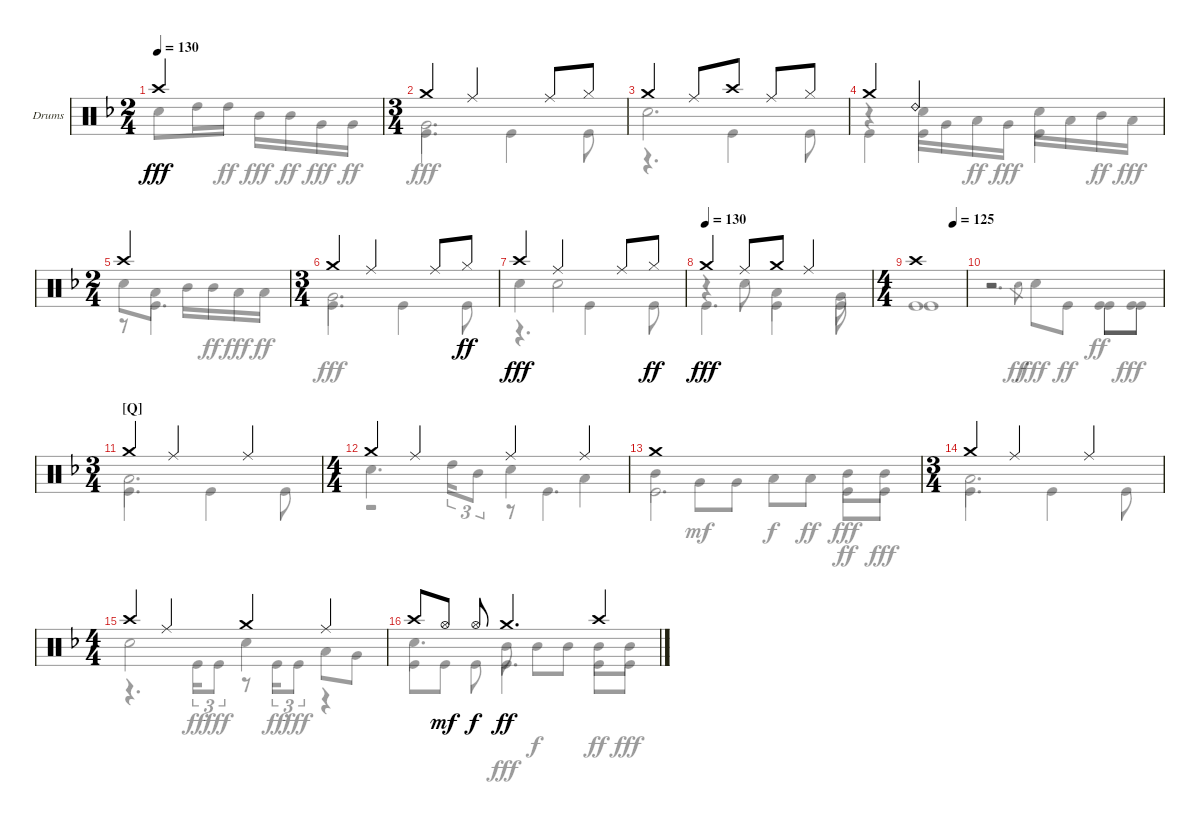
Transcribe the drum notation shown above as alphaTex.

\defaultSystemsLayout 4
\bracketExtendMode groupsimilarinstruments
\firstSystemTrackNameOrientation horizontal
\otherSystemsTrackNameOrientation horizontal
\track ("Drumkit" "Drums") {instrument percussion}
\staff {score}
\articulation defaults
\voice
\ts (2 4)
\tempo 130
\clef neutral
\ks f "Crash high (hit)".2{dy fff}
|
\ts (3 4)
"Crash medium (hit)".4 "Ride (middle)".4 "Ride (middle)".8 "Hi-Hat (closed)".8 |
"Crash medium (hit)".4 "Ride (middle)".8 "Crash high (hit)".8 "Ride (middle)".8 "Hi-Hat (closed)".8 |
"Crash medium (hit)".4 "Ride (bell) 2".2 |
\ts (2 4)
"Crash high (hit)".2 |
\ts (3 4)
"Crash medium (hit)".4 "Ride (middle)".4 "Ride (middle)".8 "Hi-Hat (closed)".8{dy ff} |
"Crash high (hit)".4{dy fff} "Ride (middle)".4 "Ride (middle)".8 "Hi-Hat (closed)".8{dy ff} |
\tempo (130)
"Crash medium (hit)".4{dy fff} "Ride (middle)".8 "Crash medium (hit)".8 "Ride (middle)".4 |
\ts (4 4)
\tempo (125 0.75625)
"Crash high (hit)".1 |
|
\ts (3 4)
\section ("Q" "")
"Crash medium (hit)".4 "Ride (middle)".4 "Ride (middle)".4 |
\ts (4 4)
"Crash medium (hit)".4 "Ride (middle)".4 "Ride (middle)".4 "Ride (middle)".4 |
"Crash medium (hit)".1 |
\ts (3 4)
"Crash medium (hit)".4 "Ride (middle)".4 "Ride (middle)".4 |
\ts (4 4)
"Crash high (hit)".4 "Ride (middle)".4 "Crash medium (hit)".4 "Ride (middle)".4 |
"Crash high (hit)".8 "Hi-Hat (open)".8{dy mf} "Hi-Hat (open)".8{dy f} "Crash medium (hit)".4{d dy ff} "Crash high (hit)".4
\voice
\clef neutral
\ottava regular
\simile none
\ks f "Snare (hit) 2".8{dy fff} "High Tom (hit)".16 "High Tom (hit)".16{dy ff} "Mid Tom (hit)".16{dy fff} "Mid Tom (hit)".16{dy ff} "Very Low Tom (hit)".16{dy fff} "Very Low Tom (hit)".16{dy ff}
|
"Very Low Tom (hit)".2{d dy fff} |
"Snare (hit) 2".2{d} |
r.4 "Snare (hit) 2".16 "Very Low Tom (hit)".16 "Low Tom (hit)".16{dy ff} "Very Low Tom (hit)".16{dy fff} "Snare (hit) 2".16 "Low Tom (hit)".16 "Mid Tom (hit)".16{dy ff} "Low Tom (hit)".16{dy fff} |
"Snare (hit) 2".8 "Low Tom (hit)".8 "Mid Tom (hit)".16 "Mid Tom (hit)".16{dy ff} "Low Tom (hit)".16{dy fff} "Low Tom (hit)".16{dy ff} |
"Very Low Tom (hit)".2{d dy fff} |
"Snare (hit) 2".4 "Snare (hit) 2".2 |
r.4 "Snare (hit) 2".8 "Low Tom (hit)".4 "Very Low Tom (hit)".8 |
"Kick (hit)".1 |
r.2 "Snare (hit) 2".8{gr dy ff} "Snare (hit) 2".8{dy fff} "Kick (hit)".8{dy ff} "Kick (hit)".8 "Kick (hit)".8{dy fff} |
"Low Tom (hit)".2{d} |
"Snare (hit) 2".4{d} "High Tom (hit)".16{tu (3 2)} "Mid Tom (hit)".8{tu (3 2)} "Snare (hit) 2".4 "Low Tom (hit)".4 |
"Mid Tom (hit)".4 "Very Low Tom (hit)".8{dy mf} "Very Low Tom (hit)".8 "Low Tom (hit)".8{dy f} "Low Tom (hit)".8{dy ff} "Mid Tom (hit)".8{dy fff} "Mid Tom (hit)".8 |
"Low Tom (hit)".2{d} |
"Snare (hit) 2".2 "Snare (hit) 2".4 "Low Tom (hit)".8 "Very Low Tom (hit)".8 |
"Snare (hit) 2".4{d} "Mid Tom (hit)".8{dy ff} "Mid Tom (hit)".8{dy f} "Mid Tom (hit)".8 "Mid Tom (hit)".8{dy ff} "Mid Tom (hit)".8{dy fff}
\voice
\clef neutral
\ottava regular
\simile none
\ks f
|
"Kick (hit)".4{d} "Kick (hit)".4 "Kick (hit)".8 |
r.4{d} "Kick (hit)".4 "Kick (hit)".8 |
"Kick (hit)".4 "Kick (hit)".4 "Kick (hit)".4 |
r.8 "Kick (hit)".4{d} |
"Kick (hit)".4{d} "Kick (hit)".4 "Kick (hit)".8 |
r.4{d} "Kick (hit)".4 "Kick (hit)".8 |
"Kick (hit)".4{d} "Kick (hit)".4 "Kick (hit)".8 |
"Kick (hit)".1 |
r.2{d} "Kick (hit)".8{dy ff} "Kick (hit)".8{dy fff} |
"Kick (hit)".4{d} "Kick (hit)".4 "Kick (hit)".8 |
r.2 r.8 "Kick (hit)".4{d} |
"Kick (hit)".2{d} "Kick (hit)".8{dy ff} "Kick (hit)".8{dy fff} |
"Kick (hit)".4{d} "Kick (hit)".4 "Kick (hit)".8 |
r.4{d} "Kick (hit)".16{tu (3 2) dy ff} "Kick (hit)".8{tu (3 2) dy fff} r.8 "Kick (hit)".16{tu (3 2) dy ff} "Kick (hit)".8{tu (3 2) dy fff} r.4 |
"Kick (hit)".8 "Kick (hit)".8{dy mf} "Kick (hit)".8{dy f} "Kick (hit)".4{d dy fff} "Kick (hit)".8{dy ff} "Kick (hit)".8{dy fff}
